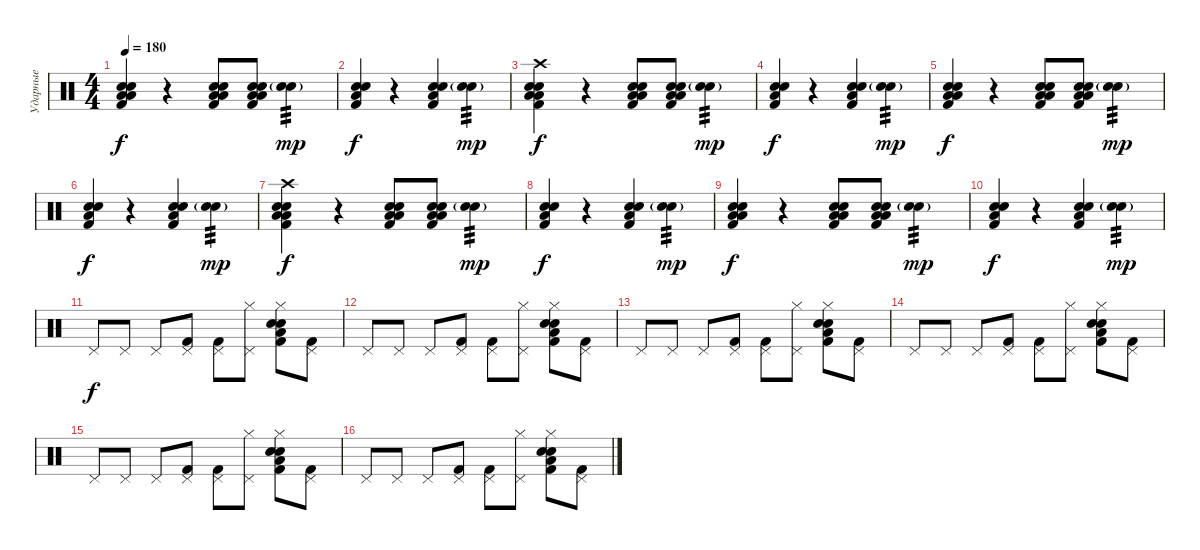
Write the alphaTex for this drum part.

\track ("Ударные" "Ударные") {instrument percussion}
\staff {score}
\articulation defaults
\ts (4 4)
\tempo 180
\clef neutral
\ks c
("Kick (hit) 2" "Snare (hit) 2" "Electric Snare (hit)" "Low Floor Tom (hit)" "Low Floor Tom (hit)").4{dy f} r.4 ("Kick (hit) 2" "Snare (hit) 2" "Electric Snare (hit)" "Low Floor Tom (hit)" "Low Floor Tom (hit)").8 ("Kick (hit) 2" "Snare (hit) 2" "Electric Snare (hit)" "Low Floor Tom (hit)" "Low Floor Tom (hit)").8 ("Snare (hit) 2" "Electric Snare (hit)"{g}).4{tp 3 dy mp} |
("Kick (hit) 2" "Snare (hit) 2" "Electric Snare (hit)" "Low Floor Tom (hit)").4{dy f} r.4 ("Kick (hit) 2" "Snare (hit) 2" "Electric Snare (hit)" "Low Floor Tom (hit)").4 ("Snare (hit) 2" "Electric Snare (hit)"{g}).4{tp 3 dy mp} |
("Crash high (hit)" "Kick (hit) 2" "Snare (hit) 2" "Electric Snare (hit)" "Low Floor Tom (hit)" "Low Floor Tom (hit)").4{dy f} r.4 ("Kick (hit) 2" "Snare (hit) 2" "Electric Snare (hit)" "Low Floor Tom (hit)" "Low Floor Tom (hit)").8 ("Kick (hit) 2" "Snare (hit) 2" "Electric Snare (hit)" "Low Floor Tom (hit)" "Low Floor Tom (hit)").8 ("Snare (hit) 2" "Electric Snare (hit)"{g}).4{tp 3 dy mp} |
("Kick (hit) 2" "Snare (hit) 2" "Electric Snare (hit)" "Low Floor Tom (hit)").4{dy f} r.4 ("Kick (hit) 2" "Snare (hit) 2" "Electric Snare (hit)" "Low Floor Tom (hit)").4 ("Snare (hit) 2" "Electric Snare (hit)"{g}).4{tp 3 dy mp} |
("Kick (hit) 2" "Snare (hit) 2" "Electric Snare (hit)" "Low Floor Tom (hit)" "Low Floor Tom (hit)").4{dy f} r.4 ("Kick (hit) 2" "Snare (hit) 2" "Electric Snare (hit)" "Low Floor Tom (hit)" "Low Floor Tom (hit)").8 ("Kick (hit) 2" "Snare (hit) 2" "Electric Snare (hit)" "Low Floor Tom (hit)" "Low Floor Tom (hit)").8 ("Snare (hit) 2" "Electric Snare (hit)"{g}).4{tp 3 dy mp} |
("Kick (hit) 2" "Snare (hit) 2" "Electric Snare (hit)" "Low Floor Tom (hit)").4{dy f} r.4 ("Kick (hit) 2" "Snare (hit) 2" "Electric Snare (hit)" "Low Floor Tom (hit)").4 ("Snare (hit) 2" "Electric Snare (hit)"{g}).4{tp 3 dy mp} |
("Crash high (hit)" "Kick (hit) 2" "Snare (hit) 2" "Electric Snare (hit)" "Low Floor Tom (hit)" "Low Floor Tom (hit)").4{dy f} r.4 ("Kick (hit) 2" "Snare (hit) 2" "Electric Snare (hit)" "Low Floor Tom (hit)" "Low Floor Tom (hit)").8 ("Kick (hit) 2" "Snare (hit) 2" "Electric Snare (hit)" "Low Floor Tom (hit)" "Low Floor Tom (hit)").8 ("Snare (hit) 2" "Electric Snare (hit)"{g}).4{tp 3 dy mp} |
("Kick (hit) 2" "Snare (hit) 2" "Electric Snare (hit)" "Low Floor Tom (hit)").4{dy f} r.4 ("Kick (hit) 2" "Snare (hit) 2" "Electric Snare (hit)" "Low Floor Tom (hit)").4 ("Snare (hit) 2" "Electric Snare (hit)"{g}).4{tp 3 dy mp} |
("Kick (hit) 2" "Snare (hit) 2" "Electric Snare (hit)" "Low Floor Tom (hit)" "Low Floor Tom (hit)").4{dy f} r.4 ("Kick (hit) 2" "Snare (hit) 2" "Electric Snare (hit)" "Low Floor Tom (hit)" "Low Floor Tom (hit)").8 ("Kick (hit) 2" "Snare (hit) 2" "Electric Snare (hit)" "Low Floor Tom (hit)" "Low Floor Tom (hit)").8 ("Snare (hit) 2" "Electric Snare (hit)"{g}).4{tp 3 dy mp} |
("Kick (hit) 2" "Snare (hit) 2" "Electric Snare (hit)" "Low Floor Tom (hit)").4{dy f} r.4 ("Kick (hit) 2" "Snare (hit) 2" "Electric Snare (hit)" "Low Floor Tom (hit)").4 ("Snare (hit) 2" "Electric Snare (hit)"{g}).4{tp 3 dy mp} |
"Pedal Hi-Hat (hit)".8{dy f} "Pedal Hi-Hat (hit)".8 "Pedal Hi-Hat (hit)".8 ("Kick (hit) 2" "Pedal Hi-Hat (hit)").8 ("Kick (hit) 2" "Pedal Hi-Hat (hit)").8 ("Hi-Hat (closed)" "Pedal Hi-Hat (hit)").8 ("Hi-Hat (closed)" "Kick (hit) 2" "Snare (hit) 2" "Electric Snare (hit)" "Low Floor Tom (hit)").8 ("Kick (hit) 2" "Pedal Hi-Hat (hit)").8 |
"Pedal Hi-Hat (hit)".8 "Pedal Hi-Hat (hit)".8 "Pedal Hi-Hat (hit)".8 ("Kick (hit) 2" "Pedal Hi-Hat (hit)").8 ("Kick (hit) 2" "Pedal Hi-Hat (hit)").8 ("Hi-Hat (closed)" "Pedal Hi-Hat (hit)").8 ("Hi-Hat (closed)" "Kick (hit) 2" "Snare (hit) 2" "Electric Snare (hit)" "Low Floor Tom (hit)").8 ("Kick (hit) 2" "Pedal Hi-Hat (hit)").8 |
"Pedal Hi-Hat (hit)".8 "Pedal Hi-Hat (hit)".8 "Pedal Hi-Hat (hit)".8 ("Kick (hit) 2" "Pedal Hi-Hat (hit)").8 ("Kick (hit) 2" "Pedal Hi-Hat (hit)").8 ("Hi-Hat (closed)" "Pedal Hi-Hat (hit)").8 ("Hi-Hat (closed)" "Kick (hit) 2" "Snare (hit) 2" "Electric Snare (hit)" "Low Floor Tom (hit)").8 ("Kick (hit) 2" "Pedal Hi-Hat (hit)").8 |
"Pedal Hi-Hat (hit)".8 "Pedal Hi-Hat (hit)".8 "Pedal Hi-Hat (hit)".8 ("Kick (hit) 2" "Pedal Hi-Hat (hit)").8 ("Kick (hit) 2" "Pedal Hi-Hat (hit)").8 ("Hi-Hat (closed)" "Pedal Hi-Hat (hit)").8 ("Hi-Hat (closed)" "Kick (hit) 2" "Snare (hit) 2" "Electric Snare (hit)" "Low Floor Tom (hit)").8 ("Kick (hit) 2" "Pedal Hi-Hat (hit)").8 |
"Pedal Hi-Hat (hit)".8 "Pedal Hi-Hat (hit)".8 "Pedal Hi-Hat (hit)".8 ("Kick (hit) 2" "Pedal Hi-Hat (hit)").8 ("Kick (hit) 2" "Pedal Hi-Hat (hit)").8 ("Hi-Hat (closed)" "Pedal Hi-Hat (hit)").8 ("Hi-Hat (closed)" "Kick (hit) 2" "Snare (hit) 2" "Electric Snare (hit)" "Low Floor Tom (hit)").8 ("Kick (hit) 2" "Pedal Hi-Hat (hit)").8 |
"Pedal Hi-Hat (hit)".8 "Pedal Hi-Hat (hit)".8 "Pedal Hi-Hat (hit)".8 ("Kick (hit) 2" "Pedal Hi-Hat (hit)").8 ("Kick (hit) 2" "Pedal Hi-Hat (hit)").8 ("Hi-Hat (closed)" "Pedal Hi-Hat (hit)").8 ("Hi-Hat (closed)" "Kick (hit) 2" "Snare (hit) 2" "Electric Snare (hit)" "Low Floor Tom (hit)").8 ("Kick (hit) 2" "Pedal Hi-Hat (hit)").8
